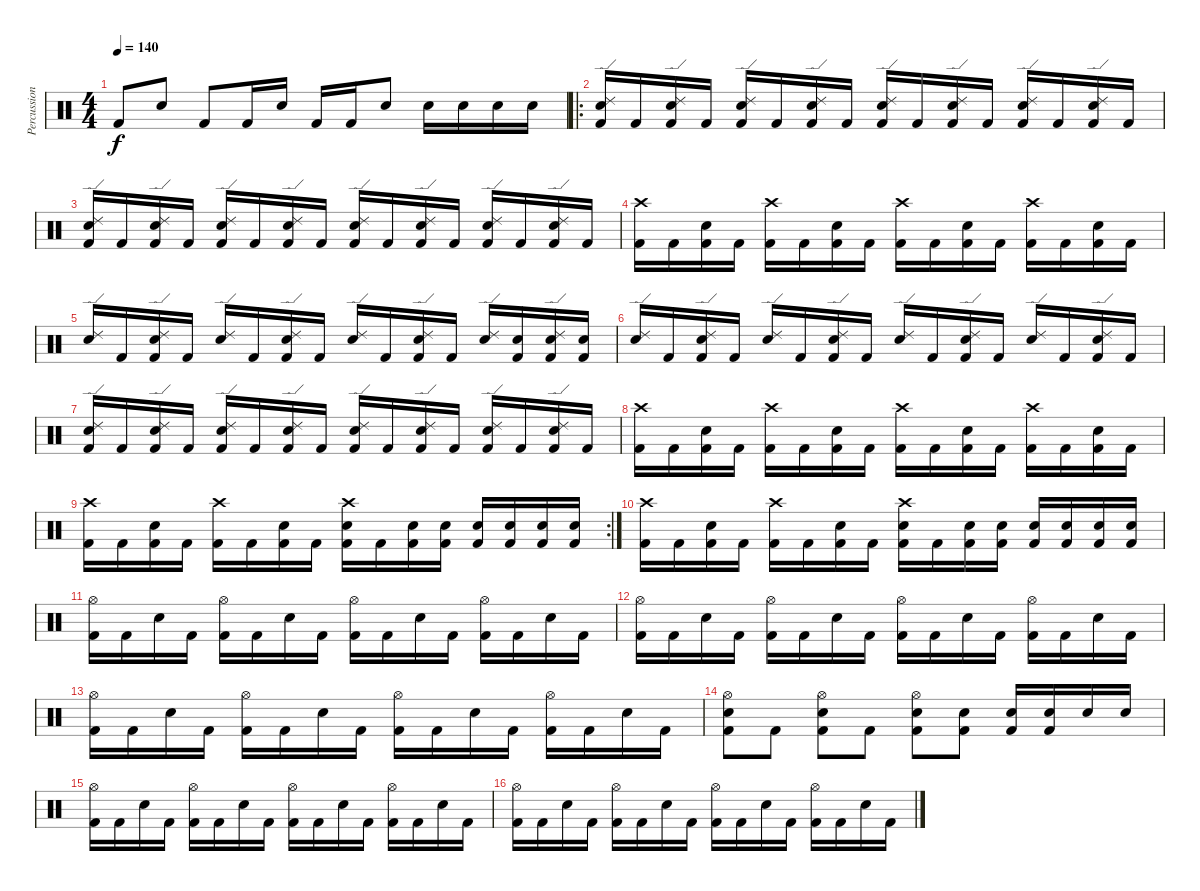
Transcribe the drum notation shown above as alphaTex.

\track ("Percussion" "Percussion") {instrument percussion}
\staff {score}
\articulation defaults
\ts (4 4)
\tempo 140
\clef neutral
\ks c "Kick (hit) 2".8{dy f} "Electric Snare (hit)".8 "Kick (hit) 2".8 "Kick (hit) 2".16 "Electric Snare (hit)".16 "Kick (hit) 2".16 "Kick (hit) 2".16 "Electric Snare (hit)".8 "Electric Snare (hit)".16 "Electric Snare (hit)".16 "Electric Snare (hit)".16 "Electric Snare (hit)".16
|
\ro
("Kick (hit) 2" "Electric Snare (hit)" "Ride (edge) 2").16 "Kick (hit) 2".16 ("Kick (hit) 2" "Electric Snare (hit)" "Ride (edge) 2").16 "Kick (hit) 2".16 ("Kick (hit) 2" "Electric Snare (hit)" "Ride (edge) 2").16 "Kick (hit) 2".16 ("Kick (hit) 2" "Electric Snare (hit)" "Ride (edge) 2").16 "Kick (hit) 2".16 ("Kick (hit) 2" "Electric Snare (hit)" "Ride (edge) 2").16 "Kick (hit) 2".16 ("Kick (hit) 2" "Electric Snare (hit)" "Ride (edge) 2").16 "Kick (hit) 2".16 ("Kick (hit) 2" "Electric Snare (hit)" "Ride (edge) 2").16 "Kick (hit) 2".16 ("Kick (hit) 2" "Electric Snare (hit)" "Ride (edge) 2").16 "Kick (hit) 2".16 |
("Kick (hit) 2" "Electric Snare (hit)" "Ride (edge) 2").16 "Kick (hit) 2".16 ("Kick (hit) 2" "Electric Snare (hit)" "Ride (edge) 2").16 "Kick (hit) 2".16 ("Kick (hit) 2" "Electric Snare (hit)" "Ride (edge) 2").16 "Kick (hit) 2".16 ("Kick (hit) 2" "Electric Snare (hit)" "Ride (edge) 2").16 "Kick (hit) 2".16 ("Kick (hit) 2" "Electric Snare (hit)" "Ride (edge) 2").16 "Kick (hit) 2".16 ("Kick (hit) 2" "Electric Snare (hit)" "Ride (edge) 2").16 "Kick (hit) 2".16 ("Kick (hit) 2" "Electric Snare (hit)" "Ride (edge) 2").16 "Kick (hit) 2".16 ("Kick (hit) 2" "Electric Snare (hit)" "Ride (edge) 2").16 "Kick (hit) 2".16 |
("Kick (hit) 2" "Crash high (hit)").16 "Kick (hit) 2".16 ("Kick (hit) 2" "Electric Snare (hit)").16 "Kick (hit) 2".16 ("Kick (hit) 2" "Crash high (hit)").16 "Kick (hit) 2".16 ("Kick (hit) 2" "Electric Snare (hit)").16 "Kick (hit) 2".16 ("Kick (hit) 2" "Crash high (hit)").16 "Kick (hit) 2".16 ("Kick (hit) 2" "Electric Snare (hit)").16 "Kick (hit) 2".16 ("Kick (hit) 2" "Crash high (hit)").16 "Kick (hit) 2".16 ("Kick (hit) 2" "Electric Snare (hit)").16 "Kick (hit) 2".16 |
("Electric Snare (hit)" "Ride (edge) 2").16 "Kick (hit) 2".16 ("Kick (hit) 2" "Electric Snare (hit)" "Ride (edge) 2").16 "Kick (hit) 2".16 ("Electric Snare (hit)" "Ride (edge) 2").16 "Kick (hit) 2".16 ("Kick (hit) 2" "Electric Snare (hit)" "Ride (edge) 2").16 "Kick (hit) 2".16 ("Electric Snare (hit)" "Ride (edge) 2").16 "Kick (hit) 2".16 ("Kick (hit) 2" "Electric Snare (hit)" "Ride (edge) 2").16 "Kick (hit) 2".16 ("Electric Snare (hit)" "Ride (edge) 2").16 ("Kick (hit) 2" "Electric Snare (hit)").16 ("Kick (hit) 2" "Electric Snare (hit)" "Ride (edge) 2").16 ("Kick (hit) 2" "Electric Snare (hit)").16 |
("Electric Snare (hit)" "Ride (edge) 2").16 "Kick (hit) 2".16 ("Kick (hit) 2" "Electric Snare (hit)" "Ride (edge) 2").16 "Kick (hit) 2".16 ("Electric Snare (hit)" "Ride (edge) 2").16 "Kick (hit) 2".16 ("Kick (hit) 2" "Electric Snare (hit)" "Ride (edge) 2").16 "Kick (hit) 2".16 ("Electric Snare (hit)" "Ride (edge) 2").16 "Kick (hit) 2".16 ("Kick (hit) 2" "Electric Snare (hit)" "Ride (edge) 2").16 "Kick (hit) 2".16 ("Electric Snare (hit)" "Ride (edge) 2").16 "Kick (hit) 2".16 ("Kick (hit) 2" "Electric Snare (hit)" "Ride (edge) 2").16 "Kick (hit) 2".16 |
("Kick (hit) 2" "Electric Snare (hit)" "Ride (edge) 2").16 "Kick (hit) 2".16 ("Kick (hit) 2" "Electric Snare (hit)" "Ride (edge) 2").16 "Kick (hit) 2".16 ("Kick (hit) 2" "Electric Snare (hit)" "Ride (edge) 2").16 "Kick (hit) 2".16 ("Kick (hit) 2" "Electric Snare (hit)" "Ride (edge) 2").16 "Kick (hit) 2".16 ("Kick (hit) 2" "Electric Snare (hit)" "Ride (edge) 2").16 "Kick (hit) 2".16 ("Kick (hit) 2" "Electric Snare (hit)" "Ride (edge) 2").16 "Kick (hit) 2".16 ("Kick (hit) 2" "Electric Snare (hit)" "Ride (edge) 2").16 "Kick (hit) 2".16 ("Kick (hit) 2" "Electric Snare (hit)" "Ride (edge) 2").16 "Kick (hit) 2".16 |
("Kick (hit) 2" "Crash high (hit)").16 "Kick (hit) 2".16 ("Kick (hit) 2" "Electric Snare (hit)").16 "Kick (hit) 2".16 ("Kick (hit) 2" "Crash high (hit)").16 "Kick (hit) 2".16 ("Kick (hit) 2" "Electric Snare (hit)").16 "Kick (hit) 2".16 ("Kick (hit) 2" "Crash high (hit)").16 "Kick (hit) 2".16 ("Kick (hit) 2" "Electric Snare (hit)").16 "Kick (hit) 2".16 ("Kick (hit) 2" "Crash high (hit)").16 "Kick (hit) 2".16 ("Kick (hit) 2" "Electric Snare (hit)").16 "Kick (hit) 2".16 |
\rc 2
("Kick (hit) 2" "Crash high (hit)").16 "Kick (hit) 2".16 ("Kick (hit) 2" "Electric Snare (hit)").16 "Kick (hit) 2".16 ("Kick (hit) 2" "Crash high (hit)").16 "Kick (hit) 2".16 ("Kick (hit) 2" "Electric Snare (hit)").16 "Kick (hit) 2".16 ("Kick (hit) 2" "Electric Snare (hit)" "Crash high (hit)").16 "Kick (hit) 2".16 ("Kick (hit) 2" "Electric Snare (hit)").16 ("Kick (hit) 2" "Electric Snare (hit)").16 ("Kick (hit) 2" "Electric Snare (hit)").16 ("Kick (hit) 2" "Electric Snare (hit)").16 ("Kick (hit) 2" "Electric Snare (hit)").16 ("Kick (hit) 2" "Electric Snare (hit)").16 |
("Kick (hit) 2" "Crash high (hit)").16 "Kick (hit) 2".16 ("Kick (hit) 2" "Electric Snare (hit)").16 "Kick (hit) 2".16 ("Kick (hit) 2" "Crash high (hit)").16 "Kick (hit) 2".16 ("Kick (hit) 2" "Electric Snare (hit)").16 "Kick (hit) 2".16 ("Kick (hit) 2" "Electric Snare (hit)" "Crash high (hit)").16 "Kick (hit) 2".16 ("Kick (hit) 2" "Electric Snare (hit)").16 ("Kick (hit) 2" "Electric Snare (hit)").16 ("Kick (hit) 2" "Electric Snare (hit)").16 ("Kick (hit) 2" "Electric Snare (hit)").16 ("Kick (hit) 2" "Electric Snare (hit)").16 ("Kick (hit) 2" "Electric Snare (hit)").16 |
("Kick (hit) 2" "Hi-Hat (open)").16 "Kick (hit) 2".16 "Electric Snare (hit)".16 "Kick (hit) 2".16 ("Kick (hit) 2" "Hi-Hat (open)").16 "Kick (hit) 2".16 "Electric Snare (hit)".16 "Kick (hit) 2".16 ("Kick (hit) 2" "Hi-Hat (open)").16 "Kick (hit) 2".16 "Electric Snare (hit)".16 "Kick (hit) 2".16 ("Kick (hit) 2" "Hi-Hat (open)").16 "Kick (hit) 2".16 "Electric Snare (hit)".16 "Kick (hit) 2".16 |
("Kick (hit) 2" "Hi-Hat (open)").16 "Kick (hit) 2".16 "Electric Snare (hit)".16 "Kick (hit) 2".16 ("Kick (hit) 2" "Hi-Hat (open)").16 "Kick (hit) 2".16 "Electric Snare (hit)".16 "Kick (hit) 2".16 ("Kick (hit) 2" "Hi-Hat (open)").16 "Kick (hit) 2".16 "Electric Snare (hit)".16 "Kick (hit) 2".16 ("Kick (hit) 2" "Hi-Hat (open)").16 "Kick (hit) 2".16 "Electric Snare (hit)".16 "Kick (hit) 2".16 |
("Kick (hit) 2" "Hi-Hat (open)").16 "Kick (hit) 2".16 "Electric Snare (hit)".16 "Kick (hit) 2".16 ("Kick (hit) 2" "Hi-Hat (open)").16 "Kick (hit) 2".16 "Electric Snare (hit)".16 "Kick (hit) 2".16 ("Kick (hit) 2" "Hi-Hat (open)").16 "Kick (hit) 2".16 "Electric Snare (hit)".16 "Kick (hit) 2".16 ("Kick (hit) 2" "Hi-Hat (open)").16 "Kick (hit) 2".16 "Electric Snare (hit)".16 "Kick (hit) 2".16 |
("Kick (hit) 2" "Electric Snare (hit)" "Hi-Hat (open)").8 "Kick (hit) 2".8 ("Kick (hit) 2" "Electric Snare (hit)" "Hi-Hat (open)").8 "Kick (hit) 2".8 ("Kick (hit) 2" "Electric Snare (hit)" "Hi-Hat (open)").8 ("Kick (hit) 2" "Electric Snare (hit)").8 ("Kick (hit) 2" "Electric Snare (hit)").16 ("Kick (hit) 2" "Electric Snare (hit)").16 "Electric Snare (hit)".16 "Electric Snare (hit)".16 |
("Kick (hit) 2" "Hi-Hat (open)").16 "Kick (hit) 2".16 "Electric Snare (hit)".16 "Kick (hit) 2".16 ("Kick (hit) 2" "Hi-Hat (open)").16 "Kick (hit) 2".16 "Electric Snare (hit)".16 "Kick (hit) 2".16 ("Kick (hit) 2" "Hi-Hat (open)").16 "Kick (hit) 2".16 "Electric Snare (hit)".16 "Kick (hit) 2".16 ("Kick (hit) 2" "Hi-Hat (open)").16 "Kick (hit) 2".16 "Electric Snare (hit)".16 "Kick (hit) 2".16 |
("Kick (hit) 2" "Hi-Hat (open)").16 "Kick (hit) 2".16 "Electric Snare (hit)".16 "Kick (hit) 2".16 ("Kick (hit) 2" "Hi-Hat (open)").16 "Kick (hit) 2".16 "Electric Snare (hit)".16 "Kick (hit) 2".16 ("Kick (hit) 2" "Hi-Hat (open)").16 "Kick (hit) 2".16 "Electric Snare (hit)".16 "Kick (hit) 2".16 ("Kick (hit) 2" "Hi-Hat (open)").16 "Kick (hit) 2".16 "Electric Snare (hit)".16 "Kick (hit) 2".16
